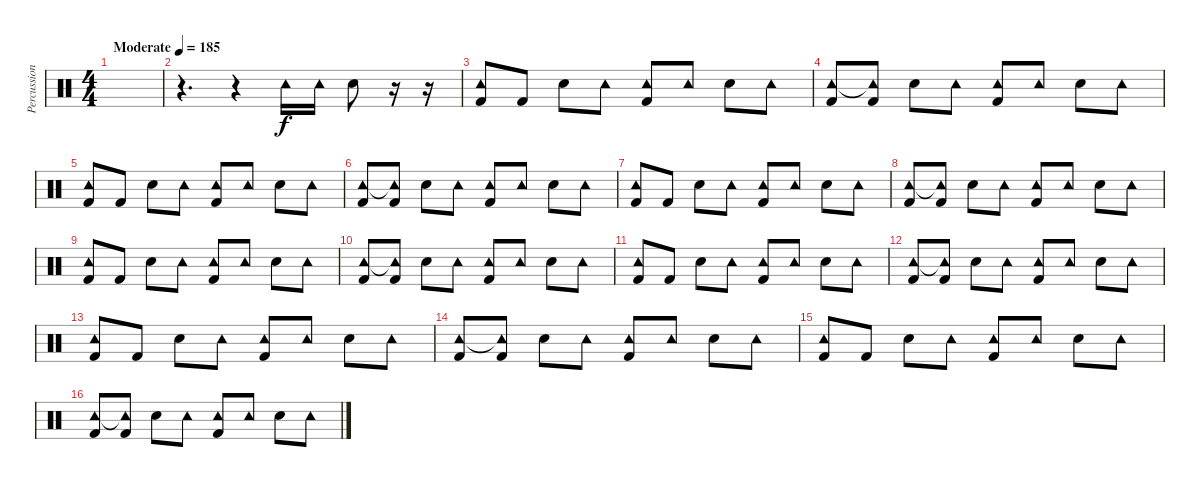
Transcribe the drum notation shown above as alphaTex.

\track ("Percussion" "Percussion") {instrument percussion}
\staff {score}
\articulation defaults
\ts (4 4)
\tempo (185 "Moderate")
\clef neutral
\ks c
|
r.4{d} r.4 "Tambourine (hit)".16 "Tambourine (hit)".16 "Snare (hit) 2".8 r.16 r.16 |
("Tambourine (hit)" "Kick (hit) 2").8 "Kick (hit) 2".8 "Electric Snare (hit)".8 "Tambourine (hit)".8 ("Tambourine (hit)" "Kick (hit) 2").8 "Tambourine (hit)".8 "Snare (hit) 2".8 "Tambourine (hit)".8 |
("Tambourine (hit)" "Kick (hit) 2").8 ("Tambourine (hit)"{t} "Kick (hit) 2").8 "Electric Snare (hit)".8 "Tambourine (hit)".8 ("Tambourine (hit)" "Kick (hit) 2").8 "Tambourine (hit)".8 "Electric Snare (hit)".8 "Tambourine (hit)".8 |
("Tambourine (hit)" "Kick (hit) 2").8 "Kick (hit) 2".8 "Electric Snare (hit)".8 "Tambourine (hit)".8 ("Tambourine (hit)" "Kick (hit) 2").8 "Tambourine (hit)".8 "Snare (hit) 2".8 "Tambourine (hit)".8 |
("Tambourine (hit)" "Kick (hit) 2").8 ("Tambourine (hit)"{t} "Kick (hit) 2").8 "Electric Snare (hit)".8 "Tambourine (hit)".8 ("Tambourine (hit)" "Kick (hit) 2").8 "Tambourine (hit)".8 "Electric Snare (hit)".8 "Tambourine (hit)".8 |
("Tambourine (hit)" "Kick (hit) 2").8 "Kick (hit) 2".8 "Electric Snare (hit)".8 "Tambourine (hit)".8 ("Tambourine (hit)" "Kick (hit) 2").8 "Tambourine (hit)".8 "Snare (hit) 2".8 "Tambourine (hit)".8 |
("Tambourine (hit)" "Kick (hit) 2").8 ("Tambourine (hit)"{t} "Kick (hit) 2").8 "Electric Snare (hit)".8 "Tambourine (hit)".8 ("Tambourine (hit)" "Kick (hit) 2").8 "Tambourine (hit)".8 "Electric Snare (hit)".8 "Tambourine (hit)".8 |
("Tambourine (hit)" "Kick (hit) 2").8 "Kick (hit) 2".8 "Electric Snare (hit)".8 "Tambourine (hit)".8 ("Tambourine (hit)" "Kick (hit) 2").8 "Tambourine (hit)".8 "Snare (hit) 2".8 "Tambourine (hit)".8 |
("Tambourine (hit)" "Kick (hit) 2").8 ("Tambourine (hit)"{t} "Kick (hit) 2").8 "Electric Snare (hit)".8 "Tambourine (hit)".8 ("Tambourine (hit)" "Kick (hit) 2").8 "Tambourine (hit)".8 "Electric Snare (hit)".8 "Tambourine (hit)".8 |
("Tambourine (hit)" "Kick (hit) 2").8 "Kick (hit) 2".8 "Electric Snare (hit)".8 "Tambourine (hit)".8 ("Tambourine (hit)" "Kick (hit) 2").8 "Tambourine (hit)".8 "Snare (hit) 2".8 "Tambourine (hit)".8 |
("Tambourine (hit)" "Kick (hit) 2").8 ("Tambourine (hit)"{t} "Kick (hit) 2").8 "Electric Snare (hit)".8 "Tambourine (hit)".8 ("Tambourine (hit)" "Kick (hit) 2").8 "Tambourine (hit)".8 "Electric Snare (hit)".8 "Tambourine (hit)".8 |
("Tambourine (hit)" "Kick (hit) 2").8 "Kick (hit) 2".8 "Electric Snare (hit)".8 "Tambourine (hit)".8 ("Tambourine (hit)" "Kick (hit) 2").8 "Tambourine (hit)".8 "Snare (hit) 2".8 "Tambourine (hit)".8 |
("Tambourine (hit)" "Kick (hit) 2").8 ("Tambourine (hit)"{t} "Kick (hit) 2").8 "Electric Snare (hit)".8 "Tambourine (hit)".8 ("Tambourine (hit)" "Kick (hit) 2").8 "Tambourine (hit)".8 "Electric Snare (hit)".8 "Tambourine (hit)".8 |
("Tambourine (hit)" "Kick (hit) 2").8 "Kick (hit) 2".8 "Electric Snare (hit)".8 "Tambourine (hit)".8 ("Tambourine (hit)" "Kick (hit) 2").8 "Tambourine (hit)".8 "Snare (hit) 2".8 "Tambourine (hit)".8 |
("Tambourine (hit)" "Kick (hit) 2").8 ("Tambourine (hit)"{t} "Kick (hit) 2").8 "Electric Snare (hit)".8 "Tambourine (hit)".8 ("Tambourine (hit)" "Kick (hit) 2").8 "Tambourine (hit)".8 "Electric Snare (hit)".8 "Tambourine (hit)".8
